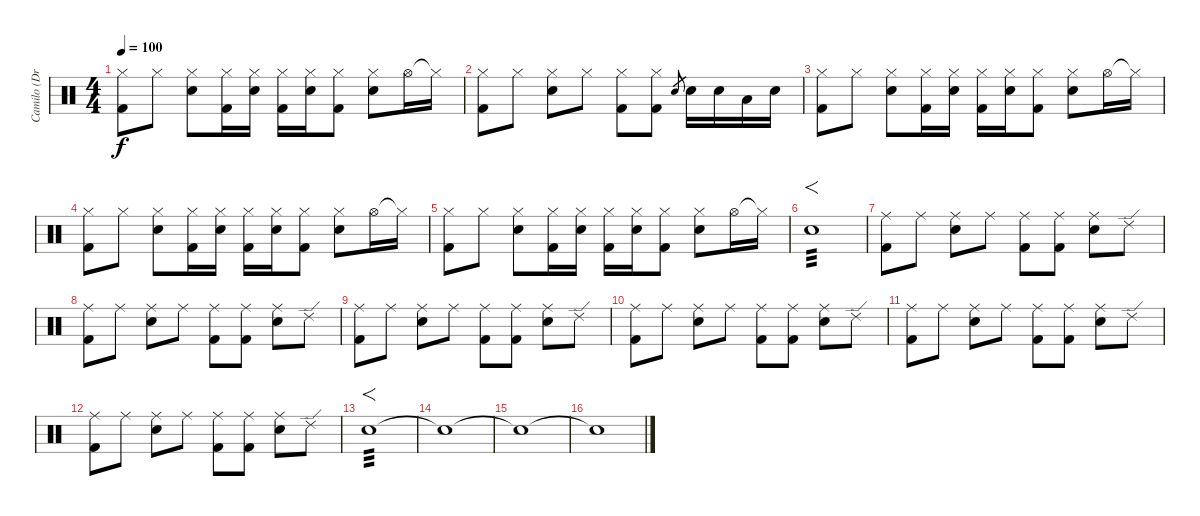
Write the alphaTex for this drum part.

\track ("Camilo (Drums)" "Camilo (Dr") {instrument percussion}
\staff {score}
\articulation defaults
\ts (4 4)
\tempo 100
\clef neutral
\ks c
("Hi-Hat (closed)" "Kick (hit) 2").8{dy f} "Hi-Hat (closed)".8 ("Hi-Hat (closed)" "Electric Snare (hit)").8 ("Hi-Hat (closed)" "Kick (hit) 2").16 ("Hi-Hat (closed)" "Electric Snare (hit)").16 ("Hi-Hat (closed)" "Kick (hit) 2").16 ("Hi-Hat (closed)" "Electric Snare (hit)").16 ("Hi-Hat (closed)" "Kick (hit) 2").8 ("Hi-Hat (closed)" "Electric Snare (hit)").8 "Hi-Hat (open)".16 "Hi-Hat (closed)"{t}.16 |
("Hi-Hat (closed)" "Kick (hit) 2").8 "Hi-Hat (closed)".8 ("Hi-Hat (closed)" "Electric Snare (hit)").8 "Hi-Hat (closed)".8 ("Hi-Hat (closed)" "Kick (hit) 2").8 ("Hi-Hat (closed)" "Kick (hit) 2").8 "Electric Snare (hit)".8{gr} "Electric Snare (hit)".16 "Electric Snare (hit)".16 "Low Tom (hit)".16 "Electric Snare (hit)".16 |
("Hi-Hat (closed)" "Kick (hit) 2").8 "Hi-Hat (closed)".8 ("Hi-Hat (closed)" "Electric Snare (hit)").8 ("Hi-Hat (closed)" "Kick (hit) 2").16 ("Hi-Hat (closed)" "Electric Snare (hit)").16 ("Hi-Hat (closed)" "Kick (hit) 2").16 ("Hi-Hat (closed)" "Electric Snare (hit)").16 ("Hi-Hat (closed)" "Kick (hit) 2").8 ("Hi-Hat (closed)" "Electric Snare (hit)").8 "Hi-Hat (open)".16 "Hi-Hat (closed)"{t}.16 |
("Hi-Hat (closed)" "Kick (hit) 2").8 "Hi-Hat (closed)".8 ("Hi-Hat (closed)" "Electric Snare (hit)").8 ("Hi-Hat (closed)" "Kick (hit) 2").16 ("Hi-Hat (closed)" "Electric Snare (hit)").16 ("Hi-Hat (closed)" "Kick (hit) 2").16 ("Hi-Hat (closed)" "Electric Snare (hit)").16 ("Hi-Hat (closed)" "Kick (hit) 2").8 ("Hi-Hat (closed)" "Electric Snare (hit)").8 "Hi-Hat (open)".16 "Hi-Hat (closed)"{t}.16 |
("Hi-Hat (closed)" "Kick (hit) 2").8 "Hi-Hat (closed)".8 ("Hi-Hat (closed)" "Electric Snare (hit)").8 ("Hi-Hat (closed)" "Kick (hit) 2").16 ("Hi-Hat (closed)" "Electric Snare (hit)").16 ("Hi-Hat (closed)" "Kick (hit) 2").16 ("Hi-Hat (closed)" "Electric Snare (hit)").16 ("Hi-Hat (closed)" "Kick (hit) 2").8 ("Hi-Hat (closed)" "Electric Snare (hit)").8 "Hi-Hat (open)".16 "Hi-Hat (closed)"{t}.16 |
"Electric Snare (hit)".1{f tp 3} |
("Ride (middle)" "Kick (hit) 2").8 "Ride (middle)".8 ("Ride (middle)" "Electric Snare (hit)").8 "Ride (middle)".8 ("Ride (middle)" "Kick (hit) 2").8 ("Ride (middle)" "Kick (hit) 2").8 ("Ride (middle)" "Electric Snare (hit)").8 "Ride (edge) 2".8 |
("Ride (middle)" "Kick (hit) 2").8 "Ride (middle)".8 ("Ride (middle)" "Electric Snare (hit)").8 "Ride (middle)".8 ("Ride (middle)" "Kick (hit) 2").8 ("Ride (middle)" "Kick (hit) 2").8 ("Ride (middle)" "Electric Snare (hit)").8 "Ride (edge) 2".8 |
("Ride (middle)" "Kick (hit) 2").8 "Ride (middle)".8 ("Ride (middle)" "Electric Snare (hit)").8 "Ride (middle)".8 ("Ride (middle)" "Kick (hit) 2").8 ("Ride (middle)" "Kick (hit) 2").8 ("Ride (middle)" "Electric Snare (hit)").8 "Ride (edge) 2".8 |
("Ride (middle)" "Kick (hit) 2").8 "Ride (middle)".8 ("Ride (middle)" "Electric Snare (hit)").8 "Ride (middle)".8 ("Ride (middle)" "Kick (hit) 2").8 ("Ride (middle)" "Kick (hit) 2").8 ("Ride (middle)" "Electric Snare (hit)").8 "Ride (edge) 2".8 |
("Ride (middle)" "Kick (hit) 2").8 "Ride (middle)".8 ("Ride (middle)" "Electric Snare (hit)").8 "Ride (middle)".8 ("Ride (middle)" "Kick (hit) 2").8 ("Ride (middle)" "Kick (hit) 2").8 ("Ride (middle)" "Electric Snare (hit)").8 "Ride (edge) 2".8 |
("Ride (middle)" "Kick (hit) 2").8 "Ride (middle)".8 ("Ride (middle)" "Electric Snare (hit)").8 "Ride (middle)".8 ("Ride (middle)" "Kick (hit) 2").8 ("Ride (middle)" "Kick (hit) 2").8 ("Ride (middle)" "Electric Snare (hit)").8 "Ride (edge) 2".8 |
"Electric Snare (hit)".1{f tp 3} |
"Snare (hit)"{t}.1 |
"Snare (hit)"{t}.1 |
"Snare (hit)"{t}.1
